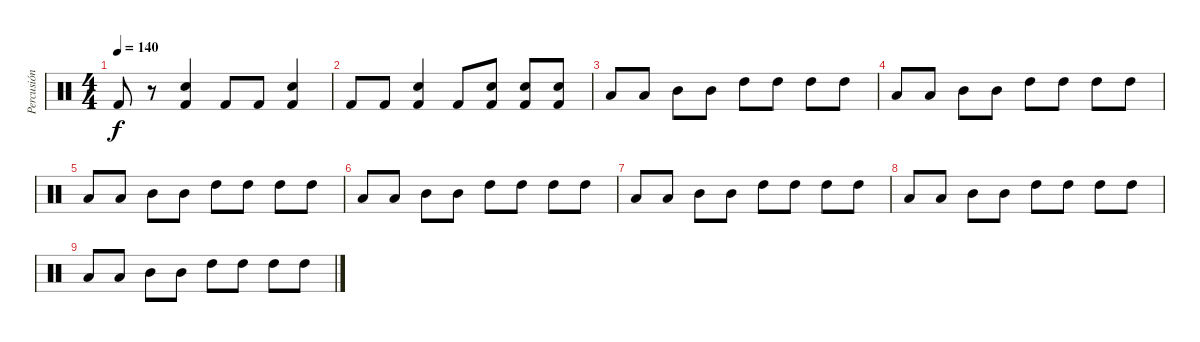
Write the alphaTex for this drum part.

\track ("Percusión" "Percusión") {instrument percussion}
\staff {score}
\articulation defaults
\ts (4 4)
\tempo 140
\clef neutral
\ks c "Kick (hit) 2".8{dy f}
r.8 ("Snare (hit) 2" "Kick (hit) 2").4 "Kick (hit) 2".8 "Kick (hit) 2".8 ("Snare (hit) 2" "Kick (hit) 2").4 |
"Kick (hit) 2".8 "Kick (hit) 2".8 ("Snare (hit) 2" "Kick (hit) 2").4 "Kick (hit) 2".8 ("Snare (hit) 2" "Kick (hit) 2").8 ("Snare (hit) 2" "Kick (hit) 2").8 ("Snare (hit) 2" "Kick (hit) 2").8 |
"Low Tom (hit)".8 "Low Tom (hit)".8 "Mid Tom (hit)".8 "Mid Tom (hit)".8 "High Tom (hit)".8 "High Tom (hit)".8 "High Tom (hit)".8 "High Tom (hit)".8 |
"Low Tom (hit)".8 "Low Tom (hit)".8 "Mid Tom (hit)".8 "Mid Tom (hit)".8 "High Tom (hit)".8 "High Tom (hit)".8 "High Tom (hit)".8 "High Tom (hit)".8 |
"Low Tom (hit)".8 "Low Tom (hit)".8 "Mid Tom (hit)".8 "Mid Tom (hit)".8 "High Tom (hit)".8 "High Tom (hit)".8 "High Tom (hit)".8 "High Tom (hit)".8 |
"Low Tom (hit)".8 "Low Tom (hit)".8 "Mid Tom (hit)".8 "Mid Tom (hit)".8 "High Tom (hit)".8 "High Tom (hit)".8 "High Tom (hit)".8 "High Tom (hit)".8 |
"Low Tom (hit)".8 "Low Tom (hit)".8 "Mid Tom (hit)".8 "Mid Tom (hit)".8 "High Tom (hit)".8 "High Tom (hit)".8 "High Tom (hit)".8 "High Tom (hit)".8 |
"Low Tom (hit)".8 "Low Tom (hit)".8 "Mid Tom (hit)".8 "Mid Tom (hit)".8 "High Tom (hit)".8 "High Tom (hit)".8 "High Tom (hit)".8 "High Tom (hit)".8 |
"Low Tom (hit)".8 "Low Tom (hit)".8 "Mid Tom (hit)".8 "Mid Tom (hit)".8 "High Tom (hit)".8 "High Tom (hit)".8 "High Tom (hit)".8 "High Tom (hit)".8
